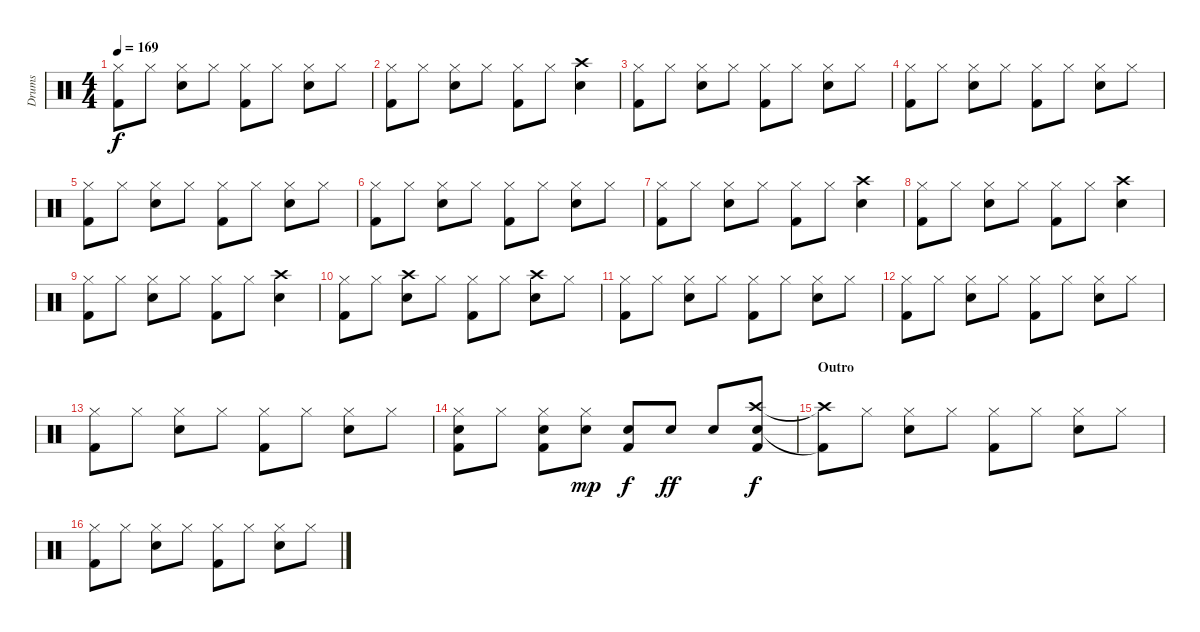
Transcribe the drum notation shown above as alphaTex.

\track ("Drums" "Drums") {instrument percussion}
\staff {score}
\articulation defaults
\ts (4 4)
\tempo 169
\clef neutral
\ks c
("Hi-Hat (closed)" "Kick (hit) 2").8{dy f} "Hi-Hat (closed)".8 ("Hi-Hat (closed)" "Snare (hit) 2").8 "Hi-Hat (closed)".8 ("Hi-Hat (closed)" "Kick (hit) 2").8 "Hi-Hat (closed)".8 ("Hi-Hat (closed)" "Snare (hit) 2").8 "Hi-Hat (closed)".8 |
("Hi-Hat (closed)" "Kick (hit) 2").8 "Hi-Hat (closed)".8 ("Hi-Hat (closed)" "Snare (hit) 2").8 "Hi-Hat (closed)".8 ("Hi-Hat (closed)" "Kick (hit) 2").8 "Hi-Hat (closed)".8 ("Crash high (hit)" "Snare (hit) 2").4 |
("Hi-Hat (closed)" "Kick (hit) 2").8 "Hi-Hat (closed)".8 ("Hi-Hat (closed)" "Snare (hit) 2").8 "Hi-Hat (closed)".8 ("Hi-Hat (closed)" "Kick (hit) 2").8 "Hi-Hat (closed)".8 ("Hi-Hat (closed)" "Snare (hit) 2").8 "Hi-Hat (closed)".8 |
("Hi-Hat (closed)" "Kick (hit) 2").8 "Hi-Hat (closed)".8 ("Hi-Hat (closed)" "Snare (hit) 2").8 "Hi-Hat (closed)".8 ("Hi-Hat (closed)" "Kick (hit) 2").8 "Hi-Hat (closed)".8 ("Hi-Hat (closed)" "Snare (hit) 2").8 "Hi-Hat (closed)".8 |
("Hi-Hat (closed)" "Kick (hit) 2").8 "Hi-Hat (closed)".8 ("Hi-Hat (closed)" "Snare (hit) 2").8 "Hi-Hat (closed)".8 ("Hi-Hat (closed)" "Kick (hit) 2").8 "Hi-Hat (closed)".8 ("Hi-Hat (closed)" "Snare (hit) 2").8 "Hi-Hat (closed)".8 |
("Hi-Hat (closed)" "Kick (hit) 2").8 "Hi-Hat (closed)".8 ("Hi-Hat (closed)" "Snare (hit) 2").8 "Hi-Hat (closed)".8 ("Hi-Hat (closed)" "Kick (hit) 2").8 "Hi-Hat (closed)".8 ("Hi-Hat (closed)" "Snare (hit) 2").8 "Hi-Hat (closed)".8 |
("Hi-Hat (closed)" "Kick (hit) 2").8 "Hi-Hat (closed)".8 ("Hi-Hat (closed)" "Snare (hit) 2").8 "Hi-Hat (closed)".8 ("Hi-Hat (closed)" "Kick (hit) 2").8 "Hi-Hat (closed)".8 ("Crash high (hit)" "Snare (hit) 2").4 |
("Hi-Hat (closed)" "Kick (hit) 2").8 "Hi-Hat (closed)".8 ("Hi-Hat (closed)" "Snare (hit) 2").8 "Hi-Hat (closed)".8 ("Hi-Hat (closed)" "Kick (hit) 2").8 "Hi-Hat (closed)".8 ("Crash high (hit)" "Snare (hit) 2").4 |
("Hi-Hat (closed)" "Kick (hit) 2").8 "Hi-Hat (closed)".8 ("Hi-Hat (closed)" "Snare (hit) 2").8 "Hi-Hat (closed)".8 ("Hi-Hat (closed)" "Kick (hit) 2").8 "Hi-Hat (closed)".8 ("Crash high (hit)" "Snare (hit) 2").4 |
("Hi-Hat (closed)" "Kick (hit) 2").8 "Hi-Hat (closed)".8 ("Crash high (hit)" "Snare (hit) 2").8 "Hi-Hat (closed)".8 ("Hi-Hat (closed)" "Kick (hit) 2").8 "Hi-Hat (closed)".8 ("Crash high (hit)" "Snare (hit) 2").8 "Hi-Hat (closed)".8 |
("Hi-Hat (closed)" "Kick (hit) 2").8 "Hi-Hat (closed)".8 ("Hi-Hat (closed)" "Snare (hit) 2").8 "Hi-Hat (closed)".8 ("Hi-Hat (closed)" "Kick (hit) 2").8 "Hi-Hat (closed)".8 ("Hi-Hat (closed)" "Snare (hit) 2").8 "Hi-Hat (closed)".8 |
("Hi-Hat (closed)" "Kick (hit) 2").8 "Hi-Hat (closed)".8 ("Hi-Hat (closed)" "Snare (hit) 2").8 "Hi-Hat (closed)".8 ("Hi-Hat (closed)" "Kick (hit) 2").8 "Hi-Hat (closed)".8 ("Hi-Hat (closed)" "Snare (hit) 2").8 "Hi-Hat (closed)".8 |
("Hi-Hat (closed)" "Kick (hit) 2").8 "Hi-Hat (closed)".8 ("Hi-Hat (closed)" "Snare (hit) 2").8 "Hi-Hat (closed)".8 ("Hi-Hat (closed)" "Kick (hit) 2").8 "Hi-Hat (closed)".8 ("Hi-Hat (closed)" "Snare (hit) 2").8 "Hi-Hat (closed)".8 |
("Hi-Hat (closed)" "Snare (hit) 2" "Kick (hit) 2").8 "Hi-Hat (closed)".8 ("Hi-Hat (closed)" "Snare (hit) 2" "Kick (hit) 2").8 ("Hi-Hat (closed)" "Electric Snare (hit)").8{dy mp} ("Electric Snare (hit)" "Kick (hit) 2").8{dy f} "Electric Snare (hit)".8{dy ff} "Electric Snare (hit)".8 ("Crash high (hit)" "Electric Snare (hit)" "Kick (hit) 2").8{dy f} |
\section ("" "Outro")
("Crash high (hit)"{t} "Kick (hit) 2"{t}).8 "Hi-Hat (closed)".8 ("Hi-Hat (closed)" "Snare (hit) 2").8 "Hi-Hat (closed)".8 ("Hi-Hat (closed)" "Kick (hit) 2").8 "Hi-Hat (closed)".8 ("Hi-Hat (closed)" "Snare (hit) 2").8 "Hi-Hat (closed)".8 |
("Hi-Hat (closed)" "Kick (hit) 2").8 "Hi-Hat (closed)".8 ("Hi-Hat (closed)" "Snare (hit) 2").8 "Hi-Hat (closed)".8 ("Hi-Hat (closed)" "Kick (hit) 2").8 "Hi-Hat (closed)".8 ("Hi-Hat (closed)" "Snare (hit) 2").8 "Hi-Hat (closed)".8
